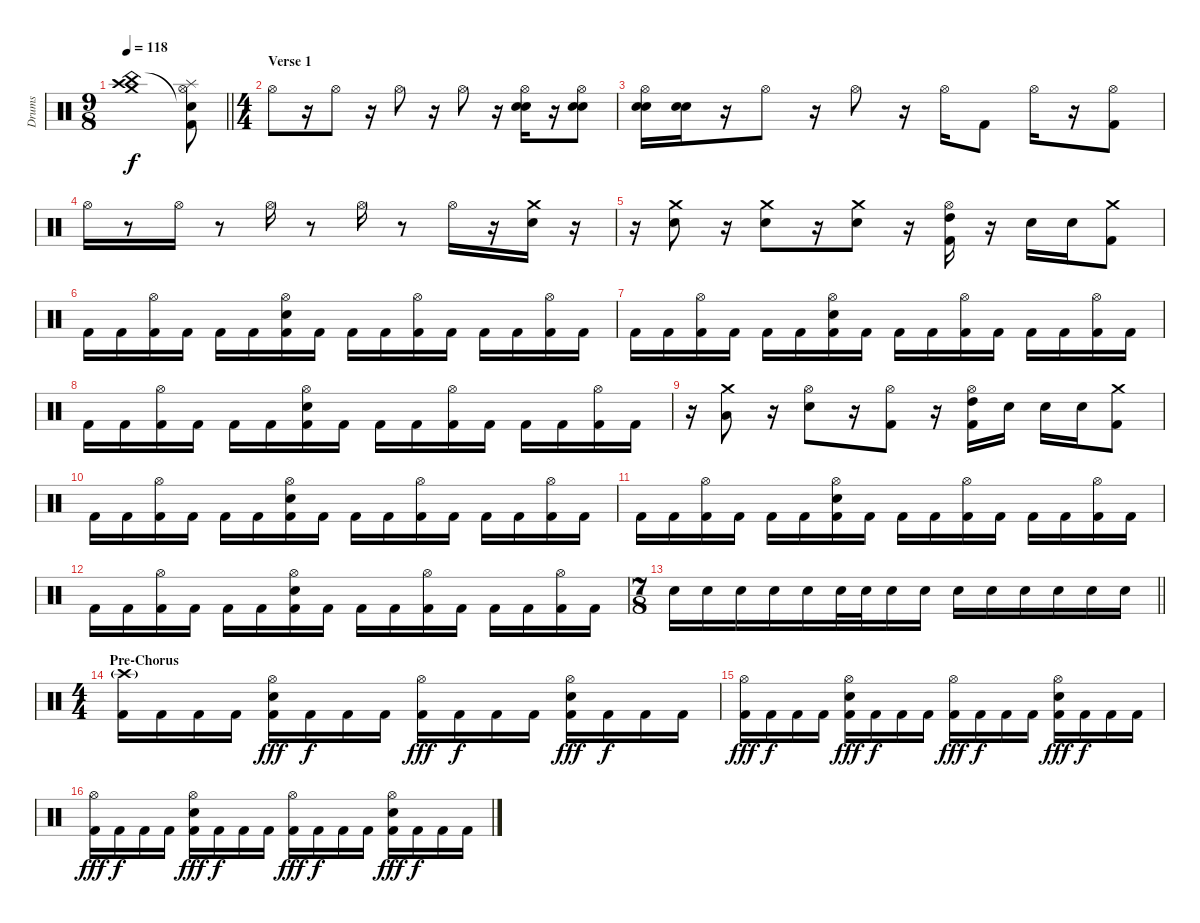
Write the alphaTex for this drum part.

\track ("Drums" "Drums") {instrument percussion}
\staff {score}
\articulation defaults
\ts (9 8)
\tempo 118
\clef neutral
\barLineRight lightlight
\ks c
("Crash medium (hit)" "Crash high (hit)" "China (hit)").1{dy f} ("Hi-Hat (open)" "Splash (hit)" "Snare (hit)"{t} "Kick (hit) 2").8 |
\ts (4 4)
\section ("" "Verse 1")
"Hi-Hat (open)".8 r.16 "Hi-Hat (open)".8 r.16 "Hi-Hat (open)".8 r.16 "Hi-Hat (open)".8 r.16 ("Hi-Hat (open)" "Electric Snare (hit)" "Electric Snare (hit)").16 r.16 ("Hi-Hat (open)" "Electric Snare (hit)" "Electric Snare (hit)").8 |
("Hi-Hat (open)" "Electric Snare (hit)" "Electric Snare (hit)").16 ("Electric Snare (hit)" "Electric Snare (hit)").16 r.16 "Hi-Hat (open)".8 r.16 "Hi-Hat (open)".8 r.16 "Hi-Hat (open)".16 "Kick (hit) 2".8 "Hi-Hat (open)".16 r.16 ("Hi-Hat (open)" "Kick (hit) 2").8 |
"Hi-Hat (open)".16 r.8 "Hi-Hat (open)".16 r.8 "Hi-Hat (open)".16 r.8 "Hi-Hat (open)".16 r.8 "Hi-Hat (open)".16 r.16 ("Crash medium (hit)" "Electric Snare (hit)").16 r.16 |
r.16 ("Crash medium (hit)" "Electric Snare (hit)").8 r.16 ("Crash medium (hit)" "Electric Snare (hit)").8 r.16 ("Crash medium (hit)" "Electric Snare (hit)").8 r.16 ("Hi-Hat (open)" "High Tom (hit)" "Kick (hit) 2").16 r.16 "Electric Snare (hit)".16 "Electric Snare (hit)".16 ("Crash medium (hit)" "Kick (hit) 2").8 |
"Kick (hit) 2".16 "Kick (hit) 2".16 ("Hi-Hat (open)" "Kick (hit) 2").16 "Kick (hit) 2".16 "Kick (hit) 2".16 "Kick (hit) 2".16 ("Hi-Hat (open)" "Electric Snare (hit)" "Kick (hit) 2").16 "Kick (hit) 2".16 "Kick (hit) 2".16 "Kick (hit) 2".16 ("Hi-Hat (open)" "Kick (hit) 2").16 "Kick (hit) 2".16 "Kick (hit) 2".16 "Kick (hit) 2".16 ("Hi-Hat (open)" "Kick (hit) 2").16 "Kick (hit) 2".16 |
"Kick (hit) 2".16 "Kick (hit) 2".16 ("Hi-Hat (open)" "Kick (hit) 2").16 "Kick (hit) 2".16 "Kick (hit) 2".16 "Kick (hit) 2".16 ("Hi-Hat (open)" "Electric Snare (hit)" "Kick (hit) 2").16 "Kick (hit) 2".16 "Kick (hit) 2".16 "Kick (hit) 2".16 ("Hi-Hat (open)" "Kick (hit) 2").16 "Kick (hit) 2".16 "Kick (hit) 2".16 "Kick (hit) 2".16 ("Hi-Hat (open)" "Kick (hit) 2").16 "Kick (hit) 2".16 |
"Kick (hit) 2".16 "Kick (hit) 2".16 ("Hi-Hat (open)" "Kick (hit) 2").16 "Kick (hit) 2".16 "Kick (hit) 2".16 "Kick (hit) 2".16 ("Hi-Hat (open)" "Electric Snare (hit)" "Kick (hit) 2").16 "Kick (hit) 2".16 "Kick (hit) 2".16 "Kick (hit) 2".16 ("Hi-Hat (open)" "Kick (hit) 2").16 "Kick (hit) 2".16 "Kick (hit) 2".16 "Kick (hit) 2".16 ("Hi-Hat (open)" "Kick (hit) 2").16 "Kick (hit) 2".16 |
r.16 ("Crash medium (hit)" "Low Tom (hit)").8 r.16 ("Hi-Hat (open)" "Electric Snare (hit)").8 r.16 ("Hi-Hat (open)" "Kick (hit) 2").8 r.16 ("Hi-Hat (open)" "High Tom (hit)" "Kick (hit) 2").16 "Electric Snare (hit)".16 "Electric Snare (hit)".16 "Electric Snare (hit)".16 ("Crash medium (hit)" "Kick (hit) 2").8 |
"Kick (hit) 2".16 "Kick (hit) 2".16 ("Hi-Hat (open)" "Kick (hit) 2").16 "Kick (hit) 2".16 "Kick (hit) 2".16 "Kick (hit) 2".16 ("Hi-Hat (open)" "Electric Snare (hit)" "Kick (hit) 2").16 "Kick (hit) 2".16 "Kick (hit) 2".16 "Kick (hit) 2".16 ("Hi-Hat (open)" "Kick (hit) 2").16 "Kick (hit) 2".16 "Kick (hit) 2".16 "Kick (hit) 2".16 ("Hi-Hat (open)" "Kick (hit) 2").16 "Kick (hit) 2".16 |
"Kick (hit) 2".16 "Kick (hit) 2".16 ("Hi-Hat (open)" "Kick (hit) 2").16 "Kick (hit) 2".16 "Kick (hit) 2".16 "Kick (hit) 2".16 ("Hi-Hat (open)" "Electric Snare (hit)" "Kick (hit) 2").16 "Kick (hit) 2".16 "Kick (hit) 2".16 "Kick (hit) 2".16 ("Hi-Hat (open)" "Kick (hit) 2").16 "Kick (hit) 2".16 "Kick (hit) 2".16 "Kick (hit) 2".16 ("Hi-Hat (open)" "Kick (hit) 2").16 "Kick (hit) 2".16 |
"Kick (hit) 2".16 "Kick (hit) 2".16 ("Hi-Hat (open)" "Kick (hit) 2").16 "Kick (hit) 2".16 "Kick (hit) 2".16 "Kick (hit) 2".16 ("Hi-Hat (open)" "Electric Snare (hit)" "Kick (hit) 2").16 "Kick (hit) 2".16 "Kick (hit) 2".16 "Kick (hit) 2".16 ("Hi-Hat (open)" "Kick (hit) 2").16 "Kick (hit) 2".16 "Kick (hit) 2".16 "Kick (hit) 2".16 ("Hi-Hat (open)" "Kick (hit) 2").16 "Kick (hit) 2".16 |
\ts (7 8)
\barLineRight lightlight "Electric Snare (hit)".16 "Electric Snare (hit)".16 "Snare (hit) 2".16 "Snare (hit) 2".16 "Snare (hit) 2".16 "Electric Snare (hit)".32 "Electric Snare (hit)".32 "Electric Snare (hit)".16 "Electric Snare (hit)".16 "Electric Snare (hit)".16 "Electric Snare (hit)".16 "Snare (hit) 2".16 "Snare (hit) 2".16 "Electric Snare (hit)".16 "Electric Snare (hit)".16
|
\ts (4 4)
\section ("" "Pre-Chorus")
("Crash high (hit)"{g} "Kick (hit) 2").16 "Kick (hit) 2".16 "Kick (hit) 2".16 "Kick (hit) 2".16 ("Hi-Hat (open)" "Electric Snare (hit)" "Kick (hit) 2").16{dy fff} "Kick (hit) 2".16{dy f} "Kick (hit) 2".16 "Kick (hit) 2".16 ("Hi-Hat (open)" "Kick (hit) 2").16{dy fff} "Kick (hit) 2".16{dy f} "Kick (hit) 2".16 "Kick (hit) 2".16 ("Hi-Hat (open)" "Electric Snare (hit)" "Kick (hit) 2").16{dy fff} "Kick (hit) 2".16{dy f} "Kick (hit) 2".16 "Kick (hit) 2".16 |
("Hi-Hat (open)" "Kick (hit) 2").16{dy fff} "Kick (hit) 2".16{dy f} "Kick (hit) 2".16 "Kick (hit) 2".16 ("Hi-Hat (open)" "Electric Snare (hit)" "Kick (hit) 2").16{dy fff} "Kick (hit) 2".16{dy f} "Kick (hit) 2".16 "Kick (hit) 2".16 ("Hi-Hat (open)" "Kick (hit) 2").16{dy fff} "Kick (hit) 2".16{dy f} "Kick (hit) 2".16 "Kick (hit) 2".16 ("Hi-Hat (open)" "Electric Snare (hit)" "Kick (hit) 2").16{dy fff} "Kick (hit) 2".16{dy f} "Kick (hit) 2".16 "Kick (hit) 2".16 |
("Hi-Hat (open)" "Kick (hit) 2").16{dy fff} "Kick (hit) 2".16{dy f} "Kick (hit) 2".16 "Kick (hit) 2".16 ("Hi-Hat (open)" "Electric Snare (hit)" "Kick (hit) 2").16{dy fff} "Kick (hit) 2".16{dy f} "Kick (hit) 2".16 "Kick (hit) 2".16 ("Hi-Hat (open)" "Kick (hit) 2").16{dy fff} "Kick (hit) 2".16{dy f} "Kick (hit) 2".16 "Kick (hit) 2".16 ("Hi-Hat (open)" "Electric Snare (hit)" "Kick (hit) 2").16{dy fff} "Kick (hit) 2".16{dy f} "Kick (hit) 2".16 "Kick (hit) 2".16
